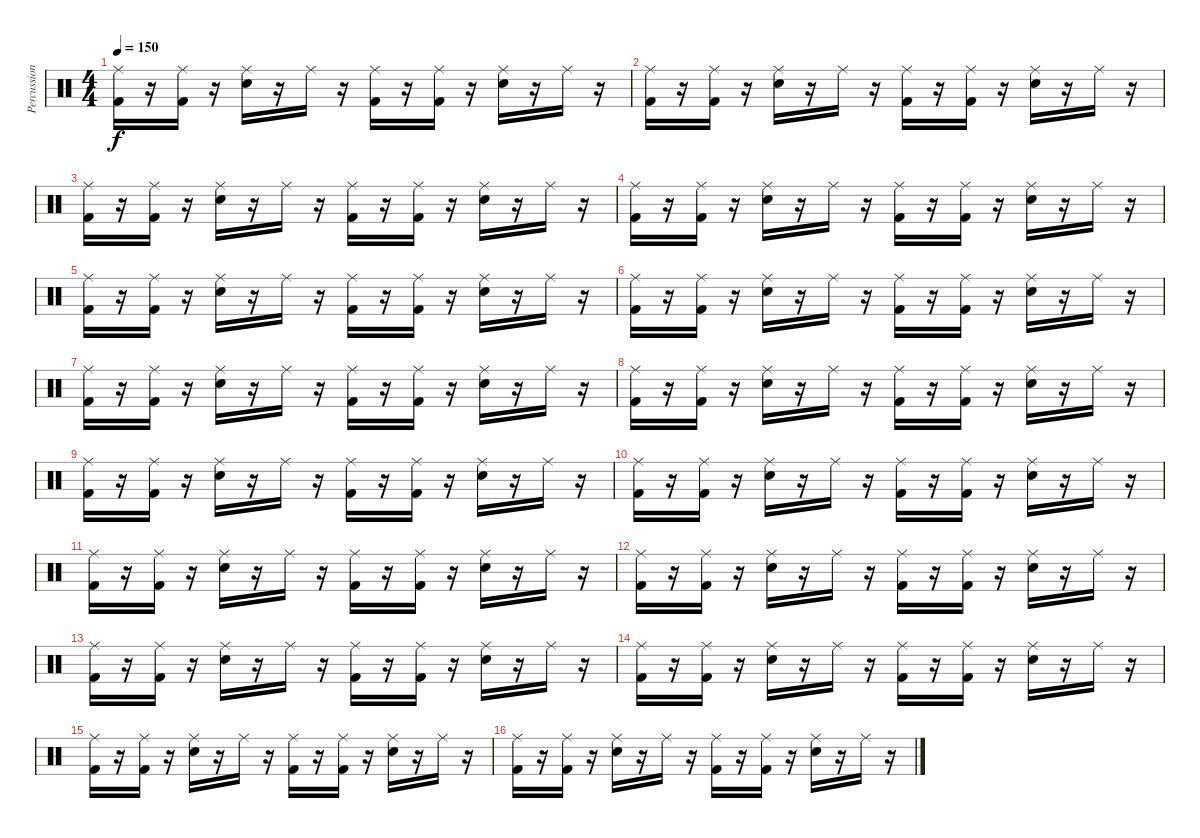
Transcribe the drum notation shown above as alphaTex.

\track ("Percussions" "Percussion") {instrument percussion}
\staff {score}
\articulation defaults
\ts (4 4)
\tempo 150
\clef neutral
\ks c
("Ride (middle)" "Kick (hit) 2").16{dy f} r.16 ("Ride (middle)" "Kick (hit) 2").16 r.16 ("Ride (middle)" "Snare (hit) 2").16 r.16 "Ride (middle)".16 r.16 ("Ride (middle)" "Kick (hit) 2").16 r.16 ("Ride (middle)" "Kick (hit) 2").16 r.16 ("Ride (middle)" "Snare (hit) 2").16 r.16 "Ride (middle)".16 r.16 |
("Ride (middle)" "Kick (hit) 2").16 r.16 ("Ride (middle)" "Kick (hit) 2").16 r.16 ("Ride (middle)" "Snare (hit) 2").16 r.16 "Ride (middle)".16 r.16 ("Ride (middle)" "Kick (hit) 2").16 r.16 ("Ride (middle)" "Kick (hit) 2").16 r.16 ("Ride (middle)" "Snare (hit) 2").16 r.16 "Ride (middle)".16 r.16 |
("Ride (middle)" "Kick (hit) 2").16 r.16 ("Ride (middle)" "Kick (hit) 2").16 r.16 ("Ride (middle)" "Snare (hit) 2").16 r.16 "Ride (middle)".16 r.16 ("Ride (middle)" "Kick (hit) 2").16 r.16 ("Ride (middle)" "Kick (hit) 2").16 r.16 ("Ride (middle)" "Snare (hit) 2").16 r.16 "Ride (middle)".16 r.16 |
("Ride (middle)" "Kick (hit) 2").16 r.16 ("Ride (middle)" "Kick (hit) 2").16 r.16 ("Ride (middle)" "Snare (hit) 2").16 r.16 "Ride (middle)".16 r.16 ("Ride (middle)" "Kick (hit) 2").16 r.16 ("Ride (middle)" "Kick (hit) 2").16 r.16 ("Ride (middle)" "Snare (hit) 2").16 r.16 "Ride (middle)".16 r.16 |
("Ride (middle)" "Kick (hit) 2").16 r.16 ("Ride (middle)" "Kick (hit) 2").16 r.16 ("Ride (middle)" "Snare (hit) 2").16 r.16 "Ride (middle)".16 r.16 ("Ride (middle)" "Kick (hit) 2").16 r.16 ("Ride (middle)" "Kick (hit) 2").16 r.16 ("Ride (middle)" "Snare (hit) 2").16 r.16 "Ride (middle)".16 r.16 |
("Ride (middle)" "Kick (hit) 2").16 r.16 ("Ride (middle)" "Kick (hit) 2").16 r.16 ("Ride (middle)" "Snare (hit) 2").16 r.16 "Ride (middle)".16 r.16 ("Ride (middle)" "Kick (hit) 2").16 r.16 ("Ride (middle)" "Kick (hit) 2").16 r.16 ("Ride (middle)" "Snare (hit) 2").16 r.16 "Ride (middle)".16 r.16 |
("Ride (middle)" "Kick (hit) 2").16 r.16 ("Ride (middle)" "Kick (hit) 2").16 r.16 ("Ride (middle)" "Snare (hit) 2").16 r.16 "Ride (middle)".16 r.16 ("Ride (middle)" "Kick (hit) 2").16 r.16 ("Ride (middle)" "Kick (hit) 2").16 r.16 ("Ride (middle)" "Snare (hit) 2").16 r.16 "Ride (middle)".16 r.16 |
("Ride (middle)" "Kick (hit) 2").16 r.16 ("Ride (middle)" "Kick (hit) 2").16 r.16 ("Ride (middle)" "Snare (hit) 2").16 r.16 "Ride (middle)".16 r.16 ("Ride (middle)" "Kick (hit) 2").16 r.16 ("Ride (middle)" "Kick (hit) 2").16 r.16 ("Ride (middle)" "Snare (hit) 2").16 r.16 "Ride (middle)".16 r.16 |
("Ride (middle)" "Kick (hit) 2").16 r.16 ("Ride (middle)" "Kick (hit) 2").16 r.16 ("Ride (middle)" "Snare (hit) 2").16 r.16 "Ride (middle)".16 r.16 ("Ride (middle)" "Kick (hit) 2").16 r.16 ("Ride (middle)" "Kick (hit) 2").16 r.16 ("Ride (middle)" "Snare (hit) 2").16 r.16 "Ride (middle)".16 r.16 |
("Ride (middle)" "Kick (hit) 2").16 r.16 ("Ride (middle)" "Kick (hit) 2").16 r.16 ("Ride (middle)" "Snare (hit) 2").16 r.16 "Ride (middle)".16 r.16 ("Ride (middle)" "Kick (hit) 2").16 r.16 ("Ride (middle)" "Kick (hit) 2").16 r.16 ("Ride (middle)" "Snare (hit) 2").16 r.16 "Ride (middle)".16 r.16 |
("Ride (middle)" "Kick (hit) 2").16 r.16 ("Ride (middle)" "Kick (hit) 2").16 r.16 ("Ride (middle)" "Snare (hit) 2").16 r.16 "Ride (middle)".16 r.16 ("Ride (middle)" "Kick (hit) 2").16 r.16 ("Ride (middle)" "Kick (hit) 2").16 r.16 ("Ride (middle)" "Snare (hit) 2").16 r.16 "Ride (middle)".16 r.16 |
("Ride (middle)" "Kick (hit) 2").16 r.16 ("Ride (middle)" "Kick (hit) 2").16 r.16 ("Ride (middle)" "Snare (hit) 2").16 r.16 "Ride (middle)".16 r.16 ("Ride (middle)" "Kick (hit) 2").16 r.16 ("Ride (middle)" "Kick (hit) 2").16 r.16 ("Ride (middle)" "Snare (hit) 2").16 r.16 "Ride (middle)".16 r.16 |
("Ride (middle)" "Kick (hit) 2").16 r.16 ("Ride (middle)" "Kick (hit) 2").16 r.16 ("Ride (middle)" "Snare (hit) 2").16 r.16 "Ride (middle)".16 r.16 ("Ride (middle)" "Kick (hit) 2").16 r.16 ("Ride (middle)" "Kick (hit) 2").16 r.16 ("Ride (middle)" "Snare (hit) 2").16 r.16 "Ride (middle)".16 r.16 |
("Ride (middle)" "Kick (hit) 2").16 r.16 ("Ride (middle)" "Kick (hit) 2").16 r.16 ("Ride (middle)" "Snare (hit) 2").16 r.16 "Ride (middle)".16 r.16 ("Ride (middle)" "Kick (hit) 2").16 r.16 ("Ride (middle)" "Kick (hit) 2").16 r.16 ("Ride (middle)" "Snare (hit) 2").16 r.16 "Ride (middle)".16 r.16 |
("Ride (middle)" "Kick (hit) 2").16 r.16 ("Ride (middle)" "Kick (hit) 2").16 r.16 ("Ride (middle)" "Snare (hit) 2").16 r.16 "Ride (middle)".16 r.16 ("Ride (middle)" "Kick (hit) 2").16 r.16 ("Ride (middle)" "Kick (hit) 2").16 r.16 ("Ride (middle)" "Snare (hit) 2").16 r.16 "Ride (middle)".16 r.16 |
("Ride (middle)" "Kick (hit) 2").16 r.16 ("Ride (middle)" "Kick (hit) 2").16 r.16 ("Ride (middle)" "Snare (hit) 2").16 r.16 "Ride (middle)".16 r.16 ("Ride (middle)" "Kick (hit) 2").16 r.16 ("Ride (middle)" "Kick (hit) 2").16 r.16 ("Ride (middle)" "Snare (hit) 2").16 r.16 "Ride (middle)".16 r.16
